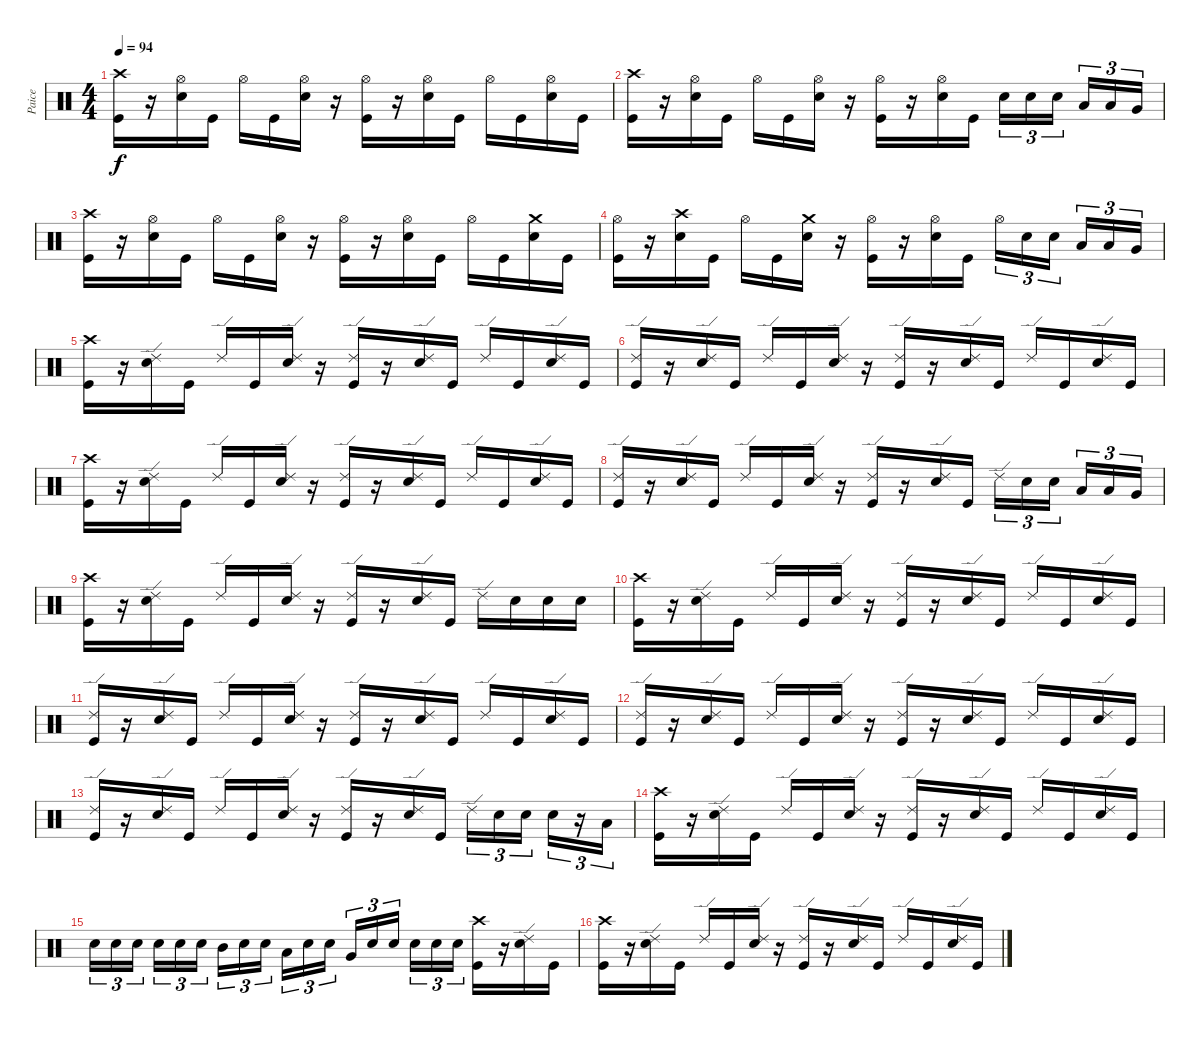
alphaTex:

\track ("Paice" "Paice") {instrument percussion}
\staff {score}
\articulation defaults
\ts (4 4)
\tempo 94
\clef neutral
\ks c
("Crash high (hit)" "Kick (hit)").16{dy f} r.16 ("Hi-Hat (open)" "Snare (hit) 2").16 "Kick (hit)".16 "Hi-Hat (open)".16 "Kick (hit)".16 ("Hi-Hat (open)" "Snare (hit) 2").16 r.16 ("Hi-Hat (open)" "Kick (hit)").16 r.16 ("Hi-Hat (open)" "Snare (hit) 2").16 "Kick (hit)".16 "Hi-Hat (open)".16 "Kick (hit)".16 ("Hi-Hat (open)" "Snare (hit) 2").16 "Kick (hit)".16 |
("Crash high (hit)" "Kick (hit)").16 r.16 ("Hi-Hat (open)" "Snare (hit) 2").16 "Kick (hit)".16 "Hi-Hat (open)".16 "Kick (hit)".16 ("Hi-Hat (open)" "Snare (hit) 2").16 r.16 ("Hi-Hat (open)" "Kick (hit)").16 r.16 ("Hi-Hat (open)" "Snare (hit) 2").16 "Kick (hit)".16 "Snare (hit) 2".16{tu (3 2)} "Snare (hit) 2".16{tu (3 2)} "Snare (hit) 2".16{tu (3 2)} "Low Tom (hit)".16{tu (3 2)} "Low Tom (hit)".16{tu (3 2)} "Very Low Tom (hit)".16{tu (3 2)} |
("Crash high (hit)" "Kick (hit)").16 r.16 ("Hi-Hat (open)" "Snare (hit) 2").16 "Kick (hit)".16 "Hi-Hat (open)".16 "Kick (hit)".16 ("Hi-Hat (open)" "Snare (hit) 2").16 r.16 ("Hi-Hat (open)" "Kick (hit)").16 r.16 ("Hi-Hat (open)" "Snare (hit) 2").16 "Kick (hit)".16 "Hi-Hat (open)".16 "Kick (hit)".16 ("Crash medium (hit)" "Snare (hit) 2").16 "Kick (hit)".16 |
("Hi-Hat (open)" "Kick (hit)").16 r.16 ("Crash high (hit)" "Snare (hit) 2").16 "Kick (hit)".16 "Hi-Hat (open)".16 "Kick (hit)".16 ("Crash medium (hit)" "Snare (hit) 2").16 r.16 ("Hi-Hat (open)" "Kick (hit)").16 r.16 ("Hi-Hat (open)" "Snare (hit) 2").16 "Kick (hit)".16 "Hi-Hat (open)".16{tu (3 2)} "Snare (hit) 2".16{tu (3 2)} "Snare (hit) 2".16{tu (3 2)} "Low Tom (hit)".16{tu (3 2)} "Low Tom (hit)".16{tu (3 2)} "Very Low Tom (hit)".16{tu (3 2)} |
("Crash high (hit)" "Kick (hit)").16 r.16 ("Ride (edge) 2" "Snare (hit) 2").16 "Kick (hit)".16 "Ride (edge) 2".16 "Kick (hit)".16 ("Ride (edge) 2" "Snare (hit) 2").16 r.16 ("Ride (edge) 2" "Kick (hit)").16 r.16 ("Ride (edge) 2" "Snare (hit) 2").16 "Kick (hit)".16 "Ride (edge) 2".16 "Kick (hit)".16 ("Ride (edge) 2" "Snare (hit) 2").16 "Kick (hit)".16 |
("Ride (edge) 2" "Kick (hit)").16 r.16 ("Ride (edge) 2" "Snare (hit) 2").16 "Kick (hit)".16 "Ride (edge) 2".16 "Kick (hit)".16 ("Ride (edge) 2" "Snare (hit) 2").16 r.16 ("Ride (edge) 2" "Kick (hit)").16 r.16 ("Ride (edge) 2" "Snare (hit) 2").16 "Kick (hit)".16 "Ride (edge) 2".16 "Kick (hit)".16 ("Ride (edge) 2" "Snare (hit) 2").16 "Kick (hit)".16 |
("Crash high (hit)" "Kick (hit)").16 r.16 ("Ride (edge) 2" "Snare (hit) 2").16 "Kick (hit)".16 "Ride (edge) 2".16 "Kick (hit)".16 ("Ride (edge) 2" "Snare (hit) 2").16 r.16 ("Ride (edge) 2" "Kick (hit)").16 r.16 ("Ride (edge) 2" "Snare (hit) 2").16 "Kick (hit)".16 "Ride (edge) 2".16 "Kick (hit)".16 ("Ride (edge) 2" "Snare (hit) 2").16 "Kick (hit)".16 |
("Ride (edge) 2" "Kick (hit)").16 r.16 ("Ride (edge) 2" "Snare (hit) 2").16 "Kick (hit)".16 "Ride (edge) 2".16 "Kick (hit)".16 ("Ride (edge) 2" "Snare (hit) 2").16 r.16 ("Ride (edge) 2" "Kick (hit)").16 r.16 ("Ride (edge) 2" "Snare (hit) 2").16 "Kick (hit)".16 "Ride (edge) 2".16{tu (3 2)} "Snare (hit) 2".16{tu (3 2)} "Snare (hit) 2".16{tu (3 2)} "Low Tom (hit)".16{tu (3 2)} "Low Tom (hit)".16{tu (3 2)} "Very Low Tom (hit)".16{tu (3 2)} |
("Crash high (hit)" "Kick (hit)").16 r.16 ("Ride (edge) 2" "Snare (hit) 2").16 "Kick (hit)".16 "Ride (edge) 2".16 "Kick (hit)".16 ("Ride (edge) 2" "Snare (hit) 2").16 r.16 ("Ride (edge) 2" "Kick (hit)").16 r.16 ("Ride (edge) 2" "Snare (hit) 2").16 "Kick (hit)".16 "Ride (edge) 2".16 "Snare (hit) 2".16 "Snare (hit) 2".16 "Snare (hit) 2".16 |
("Crash high (hit)" "Kick (hit)").16 r.16 ("Ride (edge) 2" "Snare (hit) 2").16 "Kick (hit)".16 "Ride (edge) 2".16 "Kick (hit)".16 ("Ride (edge) 2" "Snare (hit) 2").16 r.16 ("Ride (edge) 2" "Kick (hit)").16 r.16 ("Ride (edge) 2" "Snare (hit) 2").16 "Kick (hit)".16 "Ride (edge) 2".16 "Kick (hit)".16 ("Ride (edge) 2" "Snare (hit) 2").16 "Kick (hit)".16 |
("Ride (edge) 2" "Kick (hit)").16 r.16 ("Ride (edge) 2" "Snare (hit) 2").16 "Kick (hit)".16 "Ride (edge) 2".16 "Kick (hit)".16 ("Ride (edge) 2" "Snare (hit) 2").16 r.16 ("Ride (edge) 2" "Kick (hit)").16 r.16 ("Ride (edge) 2" "Snare (hit) 2").16 "Kick (hit)".16 "Ride (edge) 2".16 "Kick (hit)".16 ("Ride (edge) 2" "Snare (hit) 2").16 "Kick (hit)".16 |
("Ride (edge) 2" "Kick (hit)").16 r.16 ("Ride (edge) 2" "Snare (hit) 2").16 "Kick (hit)".16 "Ride (edge) 2".16 "Kick (hit)".16 ("Ride (edge) 2" "Snare (hit) 2").16 r.16 ("Ride (edge) 2" "Kick (hit)").16 r.16 ("Ride (edge) 2" "Snare (hit) 2").16 "Kick (hit)".16 "Ride (edge) 2".16 "Kick (hit)".16 ("Ride (edge) 2" "Snare (hit) 2").16 "Kick (hit)".16 |
("Ride (edge) 2" "Kick (hit)").16 r.16 ("Ride (edge) 2" "Snare (hit) 2").16 "Kick (hit)".16 "Ride (edge) 2".16 "Kick (hit)".16 ("Ride (edge) 2" "Snare (hit) 2").16 r.16 ("Ride (edge) 2" "Kick (hit)").16 r.16 ("Ride (edge) 2" "Snare (hit) 2").16 "Kick (hit)".16 "Ride (edge) 2".16{tu (3 2)} "Snare (hit) 2".16{tu (3 2)} "Snare (hit) 2".16{tu (3 2)} "Snare (hit) 2".16{tu (3 2)} r.16{tu (3 2)} "Low Tom (hit)".16{tu (3 2)} |
("Crash high (hit)" "Kick (hit)").16 r.16 ("Ride (edge) 2" "Snare (hit) 2").16 "Kick (hit)".16 "Ride (edge) 2".16 "Kick (hit)".16 ("Ride (edge) 2" "Snare (hit) 2").16 r.16 ("Ride (edge) 2" "Kick (hit)").16 r.16 ("Ride (edge) 2" "Snare (hit) 2").16 "Kick (hit)".16 "Ride (edge) 2".16 "Kick (hit)".16 ("Ride (edge) 2" "Snare (hit) 2").16 "Kick (hit)".16 |
"Snare (hit) 2".16{tu (3 2)} "Snare (hit) 2".16{tu (3 2)} "Snare (hit) 2".16{tu (3 2)} "Snare (hit) 2".16{tu (3 2)} "Snare (hit) 2".16{tu (3 2)} "Snare (hit) 2".16{tu (3 2)} "Mid Tom (hit)".16{tu (3 2)} "Snare (hit) 2".16{tu (3 2)} "Snare (hit) 2".16{tu (3 2)} "Low Tom (hit)".16{tu (3 2)} "Snare (hit) 2".16{tu (3 2)} "Snare (hit) 2".16{tu (3 2)} "Very Low Tom (hit)".16{tu (3 2)} "Snare (hit) 2".16{tu (3 2)} "Snare (hit) 2".16{tu (3 2)} "Snare (hit) 2".16{tu (3 2)} "Snare (hit) 2".16{tu (3 2)} "Snare (hit) 2".16{tu (3 2)} ("Kick (hit)" "Crash high (hit)").16 r.16 ("Ride (edge) 2" "Snare (hit) 2").16 "Kick (hit)".16 |
("Crash high (hit)" "Kick (hit)").16 r.16 ("Ride (edge) 2" "Snare (hit) 2").16 "Kick (hit)".16 "Ride (edge) 2".16 "Kick (hit)".16 ("Ride (edge) 2" "Snare (hit) 2").16 r.16 ("Ride (edge) 2" "Kick (hit)").16 r.16 ("Ride (edge) 2" "Snare (hit) 2").16 "Kick (hit)".16 "Ride (edge) 2".16 "Kick (hit)".16 ("Ride (edge) 2" "Snare (hit) 2").16 "Kick (hit)".16
